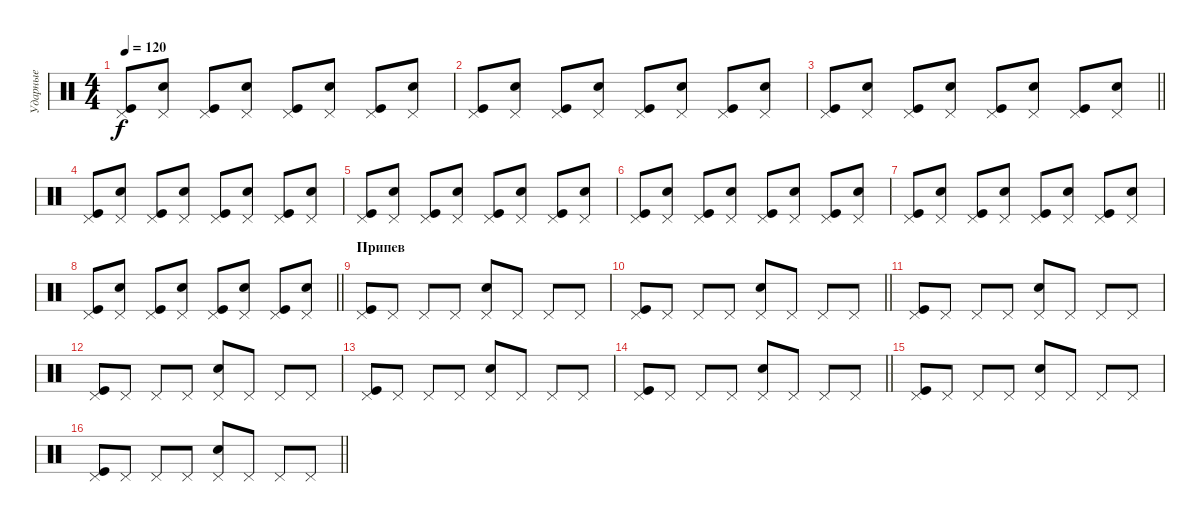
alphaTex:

\track ("Ударные" "Ударные") {instrument percussion}
\staff {score}
\articulation defaults
\ts (4 4)
\tempo 120
\clef neutral
\ks c
("Kick (hit)" "Pedal Hi-Hat (hit)").8{dy f} ("Snare (hit) 2" "Pedal Hi-Hat (hit)").8 ("Kick (hit)" "Pedal Hi-Hat (hit)").8 ("Snare (hit) 2" "Pedal Hi-Hat (hit)").8 ("Kick (hit)" "Pedal Hi-Hat (hit)").8 ("Snare (hit) 2" "Pedal Hi-Hat (hit)").8 ("Kick (hit)" "Pedal Hi-Hat (hit)").8 ("Snare (hit) 2" "Pedal Hi-Hat (hit)").8 |
("Kick (hit)" "Pedal Hi-Hat (hit)").8 ("Snare (hit) 2" "Pedal Hi-Hat (hit)").8 ("Kick (hit)" "Pedal Hi-Hat (hit)").8 ("Snare (hit) 2" "Pedal Hi-Hat (hit)").8 ("Kick (hit)" "Pedal Hi-Hat (hit)").8 ("Snare (hit) 2" "Pedal Hi-Hat (hit)").8 ("Kick (hit)" "Pedal Hi-Hat (hit)").8 ("Snare (hit) 2" "Pedal Hi-Hat (hit)").8 |
\barLineRight lightlight
("Kick (hit)" "Pedal Hi-Hat (hit)").8 ("Snare (hit) 2" "Pedal Hi-Hat (hit)").8 ("Kick (hit)" "Pedal Hi-Hat (hit)").8 ("Snare (hit) 2" "Pedal Hi-Hat (hit)").8 ("Kick (hit)" "Pedal Hi-Hat (hit)").8 ("Snare (hit) 2" "Pedal Hi-Hat (hit)").8 ("Kick (hit)" "Pedal Hi-Hat (hit)").8 ("Snare (hit) 2" "Pedal Hi-Hat (hit)").8 |
("Kick (hit)" "Pedal Hi-Hat (hit)").8 ("Snare (hit) 2" "Pedal Hi-Hat (hit)").8 ("Kick (hit)" "Pedal Hi-Hat (hit)").8 ("Snare (hit) 2" "Pedal Hi-Hat (hit)").8 ("Kick (hit)" "Pedal Hi-Hat (hit)").8 ("Snare (hit) 2" "Pedal Hi-Hat (hit)").8 ("Kick (hit)" "Pedal Hi-Hat (hit)").8 ("Snare (hit) 2" "Pedal Hi-Hat (hit)").8 |
("Kick (hit)" "Pedal Hi-Hat (hit)").8 ("Snare (hit) 2" "Pedal Hi-Hat (hit)").8 ("Kick (hit)" "Pedal Hi-Hat (hit)").8 ("Snare (hit) 2" "Pedal Hi-Hat (hit)").8 ("Kick (hit)" "Pedal Hi-Hat (hit)").8 ("Snare (hit) 2" "Pedal Hi-Hat (hit)").8 ("Kick (hit)" "Pedal Hi-Hat (hit)").8 ("Snare (hit) 2" "Pedal Hi-Hat (hit)").8 |
("Kick (hit)" "Pedal Hi-Hat (hit)").8 ("Snare (hit) 2" "Pedal Hi-Hat (hit)").8 ("Kick (hit)" "Pedal Hi-Hat (hit)").8 ("Snare (hit) 2" "Pedal Hi-Hat (hit)").8 ("Kick (hit)" "Pedal Hi-Hat (hit)").8 ("Snare (hit) 2" "Pedal Hi-Hat (hit)").8 ("Kick (hit)" "Pedal Hi-Hat (hit)").8 ("Snare (hit) 2" "Pedal Hi-Hat (hit)").8 |
("Kick (hit)" "Pedal Hi-Hat (hit)").8 ("Snare (hit) 2" "Pedal Hi-Hat (hit)").8 ("Kick (hit)" "Pedal Hi-Hat (hit)").8 ("Snare (hit) 2" "Pedal Hi-Hat (hit)").8 ("Kick (hit)" "Pedal Hi-Hat (hit)").8 ("Snare (hit) 2" "Pedal Hi-Hat (hit)").8 ("Kick (hit)" "Pedal Hi-Hat (hit)").8 ("Snare (hit) 2" "Pedal Hi-Hat (hit)").8 |
\barLineRight lightlight
("Kick (hit)" "Pedal Hi-Hat (hit)").8 ("Snare (hit) 2" "Pedal Hi-Hat (hit)").8 ("Kick (hit)" "Pedal Hi-Hat (hit)").8 ("Snare (hit) 2" "Pedal Hi-Hat (hit)").8 ("Kick (hit)" "Pedal Hi-Hat (hit)").8 ("Snare (hit) 2" "Pedal Hi-Hat (hit)").8 ("Kick (hit)" "Pedal Hi-Hat (hit)").8 ("Snare (hit) 2" "Pedal Hi-Hat (hit)").8 |
\section ("" "Припев")
("Kick (hit)" "Pedal Hi-Hat (hit)").8 "Pedal Hi-Hat (hit)".8 "Pedal Hi-Hat (hit)".8 "Pedal Hi-Hat (hit)".8 ("Snare (hit) 2" "Pedal Hi-Hat (hit)").8 "Pedal Hi-Hat (hit)".8 "Pedal Hi-Hat (hit)".8 "Pedal Hi-Hat (hit)".8 |
\barLineRight lightlight
("Kick (hit)" "Pedal Hi-Hat (hit)").8 "Pedal Hi-Hat (hit)".8 "Pedal Hi-Hat (hit)".8 "Pedal Hi-Hat (hit)".8 ("Snare (hit) 2" "Pedal Hi-Hat (hit)").8 "Pedal Hi-Hat (hit)".8 "Pedal Hi-Hat (hit)".8 "Pedal Hi-Hat (hit)".8 |
("Kick (hit)" "Pedal Hi-Hat (hit)").8 "Pedal Hi-Hat (hit)".8 "Pedal Hi-Hat (hit)".8 "Pedal Hi-Hat (hit)".8 ("Snare (hit) 2" "Pedal Hi-Hat (hit)").8 "Pedal Hi-Hat (hit)".8 "Pedal Hi-Hat (hit)".8 "Pedal Hi-Hat (hit)".8 |
("Kick (hit)" "Pedal Hi-Hat (hit)").8 "Pedal Hi-Hat (hit)".8 "Pedal Hi-Hat (hit)".8 "Pedal Hi-Hat (hit)".8 ("Snare (hit) 2" "Pedal Hi-Hat (hit)").8 "Pedal Hi-Hat (hit)".8 "Pedal Hi-Hat (hit)".8 "Pedal Hi-Hat (hit)".8 |
("Kick (hit)" "Pedal Hi-Hat (hit)").8 "Pedal Hi-Hat (hit)".8 "Pedal Hi-Hat (hit)".8 "Pedal Hi-Hat (hit)".8 ("Snare (hit) 2" "Pedal Hi-Hat (hit)").8 "Pedal Hi-Hat (hit)".8 "Pedal Hi-Hat (hit)".8 "Pedal Hi-Hat (hit)".8 |
\barLineRight lightlight
("Kick (hit)" "Pedal Hi-Hat (hit)").8 "Pedal Hi-Hat (hit)".8 "Pedal Hi-Hat (hit)".8 "Pedal Hi-Hat (hit)".8 ("Snare (hit) 2" "Pedal Hi-Hat (hit)").8 "Pedal Hi-Hat (hit)".8 "Pedal Hi-Hat (hit)".8 "Pedal Hi-Hat (hit)".8 |
("Kick (hit)" "Pedal Hi-Hat (hit)").8 "Pedal Hi-Hat (hit)".8 "Pedal Hi-Hat (hit)".8 "Pedal Hi-Hat (hit)".8 ("Snare (hit) 2" "Pedal Hi-Hat (hit)").8 "Pedal Hi-Hat (hit)".8 "Pedal Hi-Hat (hit)".8 "Pedal Hi-Hat (hit)".8 |
\barLineRight lightlight
("Kick (hit)" "Pedal Hi-Hat (hit)").8 "Pedal Hi-Hat (hit)".8 "Pedal Hi-Hat (hit)".8 "Pedal Hi-Hat (hit)".8 ("Snare (hit) 2" "Pedal Hi-Hat (hit)").8 "Pedal Hi-Hat (hit)".8 "Pedal Hi-Hat (hit)".8 "Pedal Hi-Hat (hit)".8
